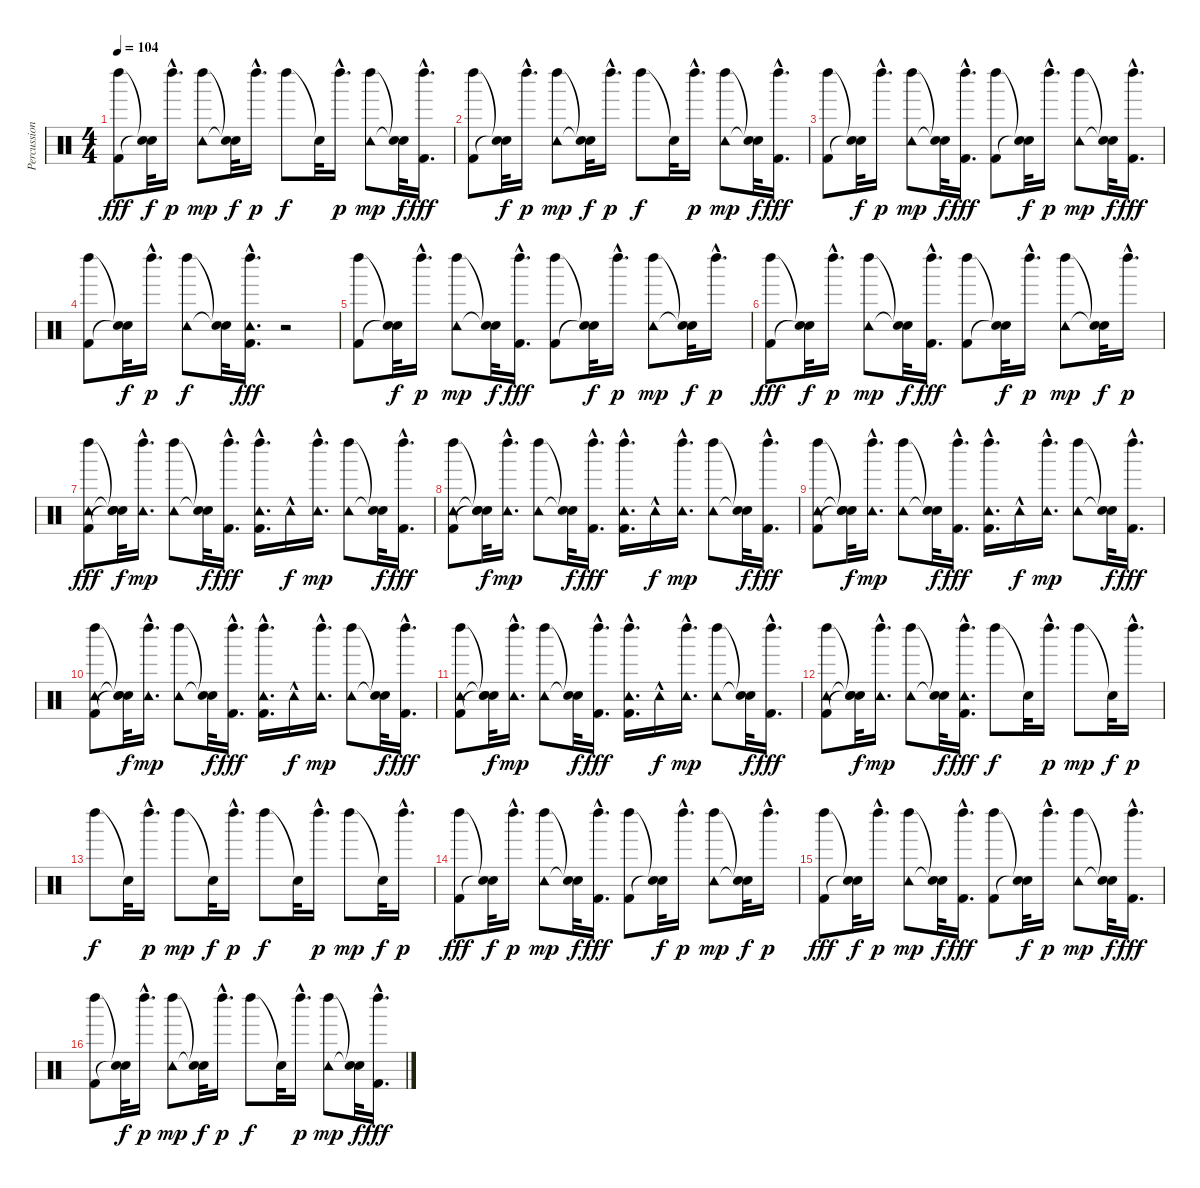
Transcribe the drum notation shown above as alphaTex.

\track ("Percussions" "Percussion") {instrument percussion}
\staff {score}
\articulation defaults
\ts (4 4)
\tempo 104
\clef neutral
\ks c
("Left Maraca (hit)" "Kick (hit) 2").8{dy fff} ("Snare (hit)"{t} "Snare (hit)"{t}).32{dy f} "Left Maraca (hit)"{hac}.16{d dy p} ("Left Maraca (hit)" "Tambourine (hit)").8{dy mp} ("Snare (hit)"{t} "Snare (hit)"{t}).32{dy f} "Left Maraca (hit)"{hac}.16{d dy p} "Left Maraca (hit)".8{dy f} "Snare (hit)"{t}.32 "Left Maraca (hit)"{hac}.16{d dy p} ("Left Maraca (hit)" "Tambourine (hit)").8{dy mp} ("Snare (hit)"{t} "Snare (hit)"{t}).32{dy f} ("Left Maraca (hit)"{hac} "Kick (hit) 2"{hac}).16{d dy fff} |
("Left Maraca (hit)" "Kick (hit) 2").8 ("Snare (hit)"{t} "Snare (hit)"{t}).32{dy f} "Left Maraca (hit)"{hac}.16{d dy p} ("Left Maraca (hit)" "Tambourine (hit)").8{dy mp} ("Snare (hit)"{t} "Snare (hit)"{t}).32{dy f} "Left Maraca (hit)"{hac}.16{d dy p} "Left Maraca (hit)".8{dy f} "Snare (hit)"{t}.32 "Left Maraca (hit)"{hac}.16{d dy p} ("Left Maraca (hit)" "Tambourine (hit)").8{dy mp} ("Snare (hit)"{t} "Snare (hit)"{t}).32{dy f} ("Left Maraca (hit)"{hac} "Kick (hit) 2"{hac}).16{d dy fff} |
("Left Maraca (hit)" "Kick (hit) 2").8 ("Snare (hit)"{t} "Snare (hit)"{t}).32{dy f} "Left Maraca (hit)"{hac}.16{d dy p} ("Left Maraca (hit)" "Tambourine (hit)").8{dy mp} ("Snare (hit)"{t} "Snare (hit)"{t}).32{dy f} ("Left Maraca (hit)"{hac} "Kick (hit) 2"{hac}).16{d dy fff} ("Left Maraca (hit)" "Kick (hit) 2").8 ("Snare (hit)"{t} "Snare (hit)"{t}).32{dy f} "Left Maraca (hit)"{hac}.16{d dy p} ("Left Maraca (hit)" "Tambourine (hit)").8{dy mp} ("Snare (hit)"{t} "Snare (hit)"{t}).32{dy f} ("Left Maraca (hit)"{hac} "Kick (hit) 2"{hac}).16{d dy fff} |
("Left Maraca (hit)" "Kick (hit) 2").8 ("Snare (hit)"{t} "Snare (hit)"{t}).32{dy f} "Left Maraca (hit)"{hac}.16{d dy p} ("Left Maraca (hit)" "Tambourine (hit)").8{dy f} ("Snare (hit)"{t} "Snare (hit)"{t}).32 ("Left Maraca (hit)"{hac} "Tambourine (hit)"{hac} "Kick (hit) 2"{hac}).16{d dy fff} r.2 |
("Left Maraca (hit)" "Kick (hit) 2").8 ("Snare (hit)"{t} "Snare (hit)"{t}).32{dy f} "Left Maraca (hit)"{hac}.16{d dy p} ("Left Maraca (hit)" "Tambourine (hit)").8{dy mp} ("Snare (hit)"{t} "Snare (hit)"{t}).32{dy f} ("Left Maraca (hit)"{hac} "Kick (hit) 2"{hac}).16{d dy fff} ("Left Maraca (hit)" "Kick (hit) 2").8 ("Snare (hit)"{t} "Snare (hit)"{t}).32{dy f} "Left Maraca (hit)"{hac}.16{d dy p} ("Left Maraca (hit)" "Tambourine (hit)").8{dy mp} ("Snare (hit)"{t} "Snare (hit)"{t}).32{dy f} "Left Maraca (hit)"{hac}.16{d dy p} |
("Left Maraca (hit)" "Kick (hit) 2").8{dy fff} ("Snare (hit)"{t} "Snare (hit)"{t}).32{dy f} "Left Maraca (hit)"{hac}.16{d dy p} ("Left Maraca (hit)" "Tambourine (hit)").8{dy mp} ("Snare (hit)"{t} "Snare (hit)"{t}).32{dy f} ("Left Maraca (hit)"{hac} "Kick (hit) 2"{hac}).16{d dy fff} ("Left Maraca (hit)" "Kick (hit) 2").8 ("Snare (hit)"{t} "Snare (hit)"{t}).32{dy f} "Left Maraca (hit)"{hac}.16{d dy p} ("Left Maraca (hit)" "Tambourine (hit)").8{dy mp} ("Snare (hit)"{t} "Snare (hit)"{t}).32{dy f} "Left Maraca (hit)"{hac}.16{d dy p} |
("Left Maraca (hit)" "Tambourine (hit)" "Kick (hit) 2").8{dy fff} ("Snare (hit)"{t} "Snare (hit)"{t} "Snare (hit)"{t}).32{dy f} ("Left Maraca (hit)"{hac} "Tambourine (hit)"{hac}).16{d dy mp} ("Left Maraca (hit)" "Tambourine (hit)").8 ("Snare (hit)"{t} "Snare (hit)"{t}).32{dy f} ("Left Maraca (hit)"{hac} "Kick (hit) 2"{hac}).16{d dy fff} ("Left Maraca (hit)" "Tambourine (hit)"{hac} "Kick (hit) 2").16{d} "Tambourine (hit)"{hac}.16{dy f} ("Left Maraca (hit)"{hac} "Tambourine (hit)"{hac}).16{d dy mp} ("Left Maraca (hit)" "Tambourine (hit)").8 ("Snare (hit)"{t} "Snare (hit)"{t}).32{dy f} ("Left Maraca (hit)"{hac} "Kick (hit) 2"{hac}).16{d dy fff} |
("Left Maraca (hit)" "Tambourine (hit)" "Kick (hit) 2").8 ("Snare (hit)"{t} "Snare (hit)"{t} "Snare (hit)"{t}).32{dy f} ("Left Maraca (hit)"{hac} "Tambourine (hit)"{hac}).16{d dy mp} ("Left Maraca (hit)" "Tambourine (hit)").8 ("Snare (hit)"{t} "Snare (hit)"{t}).32{dy f} ("Left Maraca (hit)"{hac} "Kick (hit) 2"{hac}).16{d dy fff} ("Left Maraca (hit)" "Tambourine (hit)"{hac} "Kick (hit) 2").16{d} "Tambourine (hit)"{hac}.16{dy f} ("Left Maraca (hit)"{hac} "Tambourine (hit)"{hac}).16{d dy mp} ("Left Maraca (hit)" "Tambourine (hit)").8 ("Snare (hit)"{t} "Snare (hit)"{t}).32{dy f} ("Left Maraca (hit)"{hac} "Kick (hit) 2"{hac}).16{d dy fff} |
("Left Maraca (hit)" "Tambourine (hit)" "Kick (hit) 2").8 ("Snare (hit)"{t} "Snare (hit)"{t} "Snare (hit)"{t}).32{dy f} ("Left Maraca (hit)"{hac} "Tambourine (hit)"{hac}).16{d dy mp} ("Left Maraca (hit)" "Tambourine (hit)").8 ("Snare (hit)"{t} "Snare (hit)"{t}).32{dy f} ("Left Maraca (hit)"{hac} "Kick (hit) 2"{hac}).16{d dy fff} ("Left Maraca (hit)" "Tambourine (hit)"{hac} "Kick (hit) 2").16{d} "Tambourine (hit)"{hac}.16{dy f} ("Left Maraca (hit)"{hac} "Tambourine (hit)"{hac}).16{d dy mp} ("Left Maraca (hit)" "Tambourine (hit)").8 ("Snare (hit)"{t} "Snare (hit)"{t}).32{dy f} ("Left Maraca (hit)"{hac} "Kick (hit) 2"{hac}).16{d dy fff} |
("Left Maraca (hit)" "Tambourine (hit)" "Kick (hit) 2").8 ("Snare (hit)"{t} "Snare (hit)"{t} "Snare (hit)"{t}).32{dy f} ("Left Maraca (hit)"{hac} "Tambourine (hit)"{hac}).16{d dy mp} ("Left Maraca (hit)" "Tambourine (hit)").8 ("Snare (hit)"{t} "Snare (hit)"{t}).32{dy f} ("Left Maraca (hit)"{hac} "Kick (hit) 2"{hac}).16{d dy fff} ("Left Maraca (hit)" "Tambourine (hit)"{hac} "Kick (hit) 2").16{d} "Tambourine (hit)"{hac}.16{dy f} ("Left Maraca (hit)"{hac} "Tambourine (hit)"{hac}).16{d dy mp} ("Left Maraca (hit)" "Tambourine (hit)").8 ("Snare (hit)"{t} "Snare (hit)"{t}).32{dy f} ("Left Maraca (hit)"{hac} "Kick (hit) 2"{hac}).16{d dy fff} |
("Left Maraca (hit)" "Tambourine (hit)" "Kick (hit) 2").8 ("Snare (hit)"{t} "Snare (hit)"{t} "Snare (hit)"{t}).32{dy f} ("Left Maraca (hit)"{hac} "Tambourine (hit)"{hac}).16{d dy mp} ("Left Maraca (hit)" "Tambourine (hit)").8 ("Snare (hit)"{t} "Snare (hit)"{t}).32{dy f} ("Left Maraca (hit)"{hac} "Kick (hit) 2"{hac}).16{d dy fff} ("Left Maraca (hit)" "Tambourine (hit)"{hac} "Kick (hit) 2").16{d} "Tambourine (hit)"{hac}.16{dy f} ("Left Maraca (hit)"{hac} "Tambourine (hit)"{hac}).16{d dy mp} ("Left Maraca (hit)" "Tambourine (hit)").8 ("Snare (hit)"{t} "Snare (hit)"{t}).32{dy f} ("Left Maraca (hit)"{hac} "Kick (hit) 2"{hac}).16{d dy fff} |
("Left Maraca (hit)" "Tambourine (hit)" "Kick (hit) 2").8 ("Snare (hit)"{t} "Snare (hit)"{t} "Snare (hit)"{t}).32{dy f} ("Left Maraca (hit)"{hac} "Tambourine (hit)"{hac}).16{d dy mp} ("Left Maraca (hit)" "Tambourine (hit)").8 ("Snare (hit)"{t} "Snare (hit)"{t}).32{dy f} ("Left Maraca (hit)"{hac} "Tambourine (hit)"{hac} "Kick (hit) 2"{hac}).16{d dy fff} "Left Maraca (hit)".8{dy f} "Snare (hit)"{t}.32 "Left Maraca (hit)"{hac}.16{d dy p} "Left Maraca (hit)".8{dy mp} "Snare (hit)"{t}.32{dy f} "Left Maraca (hit)"{hac}.16{d dy p} |
"Left Maraca (hit)".8{dy f} "Snare (hit)"{t}.32 "Left Maraca (hit)"{hac}.16{d dy p} "Left Maraca (hit)".8{dy mp} "Snare (hit)"{t}.32{dy f} "Left Maraca (hit)"{hac}.16{d dy p} "Left Maraca (hit)".8{dy f} "Snare (hit)"{t}.32 "Left Maraca (hit)"{hac}.16{d dy p} "Left Maraca (hit)".8{dy mp} "Snare (hit)"{t}.32{dy f} "Left Maraca (hit)"{hac}.16{d dy p} |
("Left Maraca (hit)" "Kick (hit) 2").8{dy fff} ("Snare (hit)"{t} "Snare (hit)"{t}).32{dy f} "Left Maraca (hit)"{hac}.16{d dy p} ("Left Maraca (hit)" "Tambourine (hit)").8{dy mp} ("Snare (hit)"{t} "Snare (hit)"{t}).32{dy f} ("Left Maraca (hit)"{hac} "Kick (hit) 2"{hac}).16{d dy fff} ("Left Maraca (hit)" "Kick (hit) 2").8 ("Snare (hit)"{t} "Snare (hit)"{t}).32{dy f} "Left Maraca (hit)"{hac}.16{d dy p} ("Left Maraca (hit)" "Tambourine (hit)").8{dy mp} ("Snare (hit)"{t} "Snare (hit)"{t}).32{dy f} "Left Maraca (hit)"{hac}.16{d dy p} |
("Left Maraca (hit)" "Kick (hit) 2").8{dy fff} ("Snare (hit)"{t} "Snare (hit)"{t}).32{dy f} "Left Maraca (hit)"{hac}.16{d dy p} ("Left Maraca (hit)" "Tambourine (hit)").8{dy mp} ("Snare (hit)"{t} "Snare (hit)"{t}).32{dy f} ("Left Maraca (hit)"{hac} "Kick (hit) 2"{hac}).16{d dy fff} ("Left Maraca (hit)" "Kick (hit) 2").8 ("Snare (hit)"{t} "Snare (hit)"{t}).32{dy f} "Left Maraca (hit)"{hac}.16{d dy p} ("Left Maraca (hit)" "Tambourine (hit)").8{dy mp} ("Snare (hit)"{t} "Snare (hit)"{t}).32{dy f} ("Left Maraca (hit)"{hac} "Kick (hit) 2"{hac}).16{d dy fff} |
("Left Maraca (hit)" "Kick (hit) 2").8 ("Snare (hit)"{t} "Snare (hit)"{t}).32{dy f} "Left Maraca (hit)"{hac}.16{d dy p} ("Left Maraca (hit)" "Tambourine (hit)").8{dy mp} ("Snare (hit)"{t} "Snare (hit)"{t}).32{dy f} "Left Maraca (hit)"{hac}.16{d dy p} "Left Maraca (hit)".8{dy f} "Snare (hit)"{t}.32 "Left Maraca (hit)"{hac}.16{d dy p} ("Left Maraca (hit)" "Tambourine (hit)").8{dy mp} ("Snare (hit)"{t} "Snare (hit)"{t}).32{dy f} ("Left Maraca (hit)"{hac} "Kick (hit) 2"{hac}).16{d dy fff}
